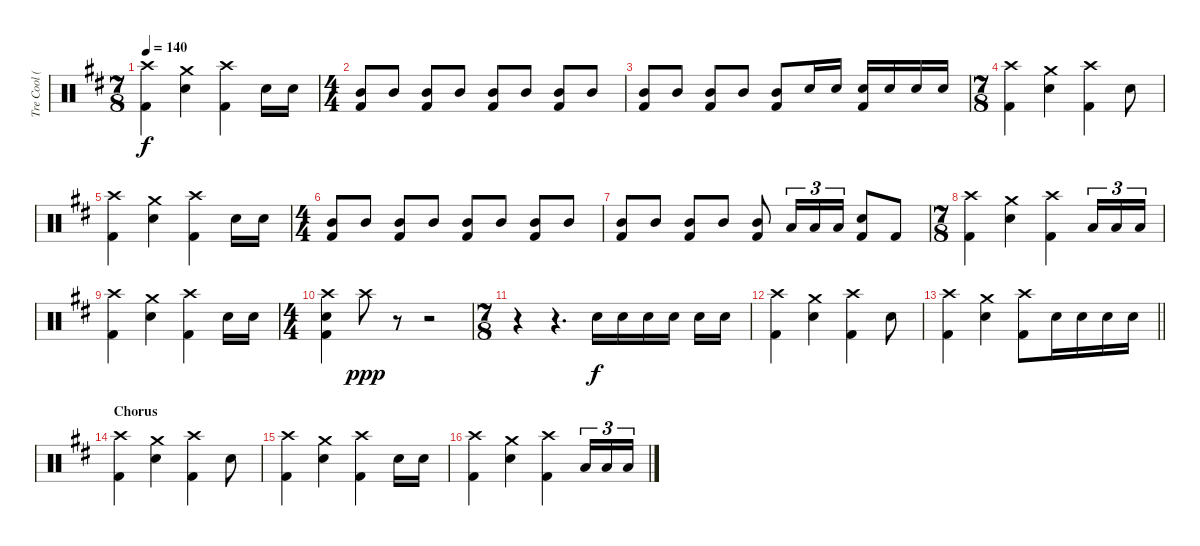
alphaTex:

\track ("Tre Cool (Drums)" "Tre Cool (") {instrument percussion}
\staff {score}
\articulation defaults
\ts (7 8)
\tempo 140
\clef neutral
\ks d
("Crash high (hit)" "Kick (hit) 2").4{dy f} ("Crash medium (hit)" "Electric Snare (hit)").4 ("Crash high (hit)" "Kick (hit) 2").4 "Electric Snare (hit)".16 "Electric Snare (hit)".16 |
\ts (4 4)
("Mid Tom (hit)" "Kick (hit) 2").8 "Mid Tom (hit)".8 ("Mid Tom (hit)" "Kick (hit) 2").8 "Mid Tom (hit)".8 ("Mid Tom (hit)" "Kick (hit) 2").8 "Mid Tom (hit)".8 ("Mid Tom (hit)" "Kick (hit) 2").8 "Mid Tom (hit)".8 |
("Mid Tom (hit)" "Kick (hit) 2").8 "Mid Tom (hit)".8 ("Mid Tom (hit)" "Kick (hit) 2").8 "Mid Tom (hit)".8 ("Mid Tom (hit)" "Kick (hit) 2").8 "Electric Snare (hit)".16 "Electric Snare (hit)".16 ("Electric Snare (hit)" "Kick (hit) 2").16 "Electric Snare (hit)".16 "Electric Snare (hit)".16 "Electric Snare (hit)".16 |
\ts (7 8)
("Crash high (hit)" "Kick (hit) 2").4 ("Crash medium (hit)" "Electric Snare (hit)").4 ("Crash high (hit)" "Kick (hit) 2").4 "Electric Snare (hit)".8 |
("Crash high (hit)" "Kick (hit) 2").4 ("Crash medium (hit)" "Electric Snare (hit)").4 ("Crash high (hit)" "Kick (hit) 2").4 "Electric Snare (hit)".16 "Electric Snare (hit)".16 |
\ts (4 4)
("Mid Tom (hit)" "Kick (hit) 2").8 "Mid Tom (hit)".8 ("Mid Tom (hit)" "Kick (hit) 2").8 "Mid Tom (hit)".8 ("Mid Tom (hit)" "Kick (hit) 2").8 "Mid Tom (hit)".8 ("Mid Tom (hit)" "Kick (hit) 2").8 "Mid Tom (hit)".8 |
("Mid Tom (hit)" "Kick (hit) 2").8 "Mid Tom (hit)".8 ("Mid Tom (hit)" "Kick (hit) 2").8 "Mid Tom (hit)".8 ("Mid Tom (hit)" "Kick (hit) 2").8 "Low Tom (hit)".16{tu (3 2)} "Low Tom (hit)".16{tu (3 2)} "Low Tom (hit)".16{tu (3 2)} ("Electric Snare (hit)" "Kick (hit) 2").8 "Kick (hit) 2".8 |
\ts (7 8)
("Crash high (hit)" "Kick (hit) 2").4 ("Crash medium (hit)" "Electric Snare (hit)").4 ("Crash high (hit)" "Kick (hit) 2").4 "Low Tom (hit)".16{tu (3 2)} "Low Tom (hit)".16{tu (3 2)} "Low Tom (hit)".16{tu (3 2)} |
("Crash high (hit)" "Kick (hit) 2").4 ("Crash medium (hit)" "Electric Snare (hit)").4 ("Crash high (hit)" "Kick (hit) 2").4 "Electric Snare (hit)".16 "Electric Snare (hit)".16 |
\ts (4 4)
("Electric Snare (hit)" "Kick (hit) 2" "Crash high (hit)").4 "Crash high (hit)".8{dy ppp} r.8 r.2 |
\ts (7 8)
r.4 r.4{d} "Electric Snare (hit)".16{dy f} "Electric Snare (hit)".16 "Electric Snare (hit)".16 "Electric Snare (hit)".16 "Electric Snare (hit)".16 "Electric Snare (hit)".16 |
("Crash high (hit)" "Kick (hit) 2").4 ("Crash medium (hit)" "Electric Snare (hit)").4 ("Crash high (hit)" "Kick (hit) 2").4 "Electric Snare (hit)".8 |
\barLineRight lightlight
("Crash high (hit)" "Kick (hit) 2").4 ("Crash medium (hit)" "Electric Snare (hit)").4 ("Crash high (hit)" "Kick (hit) 2").8 "Electric Snare (hit)".16 "Electric Snare (hit)".16 "Electric Snare (hit)".16 "Electric Snare (hit)".16 |
\section ("" "Chorus")
("Crash high (hit)" "Kick (hit) 2").4 ("Crash medium (hit)" "Electric Snare (hit)").4 ("Crash high (hit)" "Kick (hit) 2").4 "Electric Snare (hit)".8 |
("Crash high (hit)" "Kick (hit) 2").4 ("Crash medium (hit)" "Electric Snare (hit)").4 ("Crash high (hit)" "Kick (hit) 2").4 "Electric Snare (hit)".16 "Electric Snare (hit)".16 |
("Kick (hit) 2" "Crash high (hit)").4 ("Electric Snare (hit)" "Crash medium (hit)").4 ("Kick (hit) 2" "Crash high (hit)").4 "Low Tom (hit)".16{tu (3 2)} "Low Tom (hit)".16{tu (3 2)} "Low Tom (hit)".16{tu (3 2)}
